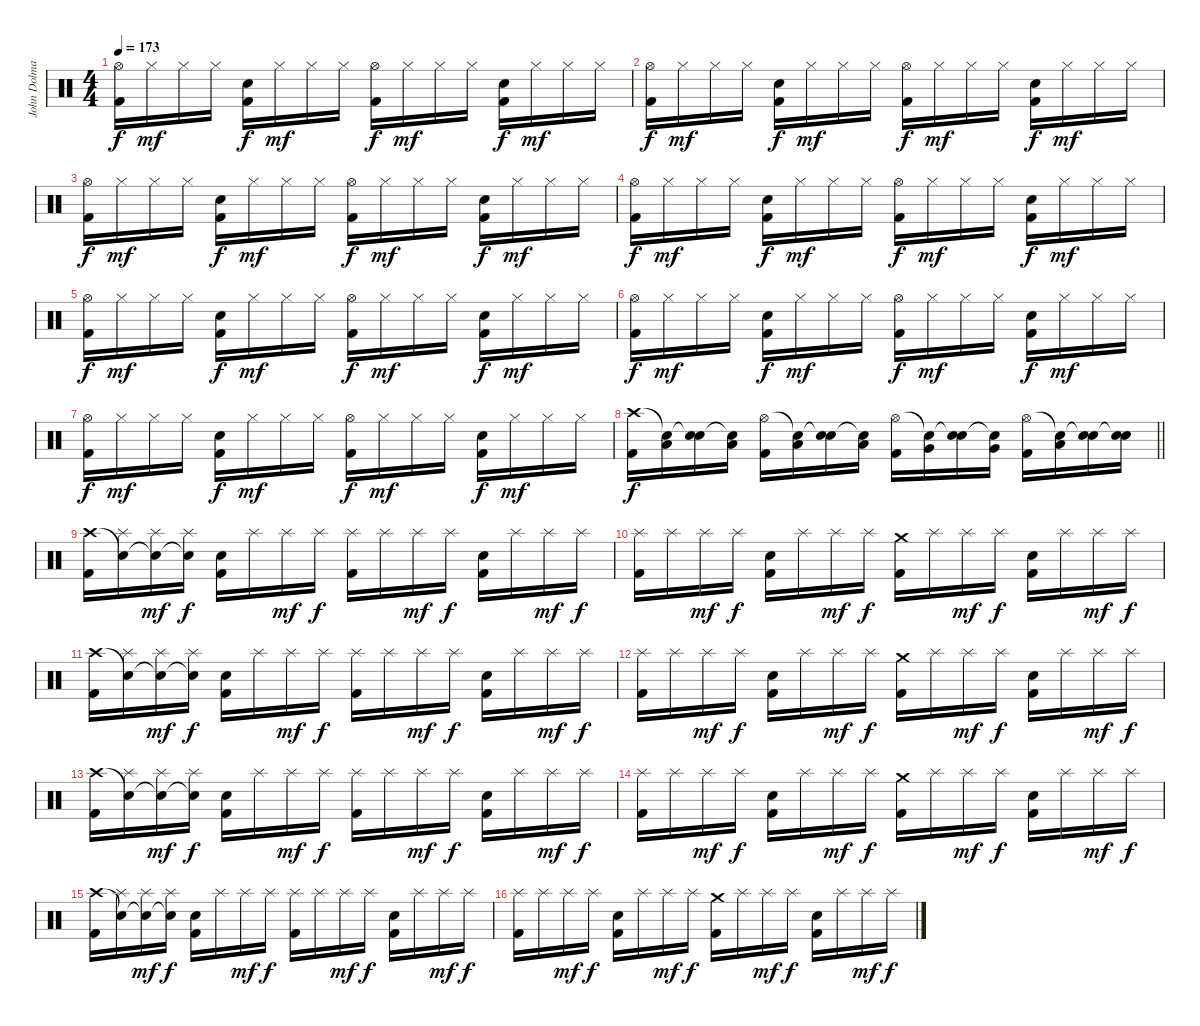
\track ("John Dolmayan" "John Dolma") {instrument percussion}
\staff {score}
\articulation defaults
\ts (4 4)
\tempo 173
\clef neutral
\ks c
("Hi-Hat (open)" "Kick (hit) 2").16{dy f} "Hi-Hat (closed)".16{dy mf} "Hi-Hat (closed)".16 "Hi-Hat (closed)".16 ("Electric Snare (hit)" "Kick (hit) 2").16{dy f} "Hi-Hat (closed)".16{dy mf} "Hi-Hat (closed)".16 "Hi-Hat (closed)".16 ("Hi-Hat (open)" "Kick (hit) 2").16{dy f} "Hi-Hat (closed)".16{dy mf} "Hi-Hat (closed)".16 "Hi-Hat (closed)".16 ("Electric Snare (hit)" "Kick (hit) 2").16{dy f} "Hi-Hat (closed)".16{dy mf} "Hi-Hat (closed)".16 "Hi-Hat (closed)".16 |
("Hi-Hat (open)" "Kick (hit) 2").16{dy f} "Hi-Hat (closed)".16{dy mf} "Hi-Hat (closed)".16 "Hi-Hat (closed)".16 ("Electric Snare (hit)" "Kick (hit) 2").16{dy f} "Hi-Hat (closed)".16{dy mf} "Hi-Hat (closed)".16 "Hi-Hat (closed)".16 ("Hi-Hat (open)" "Kick (hit) 2").16{dy f} "Hi-Hat (closed)".16{dy mf} "Hi-Hat (closed)".16 "Hi-Hat (closed)".16 ("Electric Snare (hit)" "Kick (hit) 2").16{dy f} "Hi-Hat (closed)".16{dy mf} "Hi-Hat (closed)".16 "Hi-Hat (closed)".16 |
("Hi-Hat (open)" "Kick (hit) 2").16{dy f} "Hi-Hat (closed)".16{dy mf} "Hi-Hat (closed)".16 "Hi-Hat (closed)".16 ("Electric Snare (hit)" "Kick (hit) 2").16{dy f} "Hi-Hat (closed)".16{dy mf} "Hi-Hat (closed)".16 "Hi-Hat (closed)".16 ("Hi-Hat (open)" "Kick (hit) 2").16{dy f} "Hi-Hat (closed)".16{dy mf} "Hi-Hat (closed)".16 "Hi-Hat (closed)".16 ("Electric Snare (hit)" "Kick (hit) 2").16{dy f} "Hi-Hat (closed)".16{dy mf} "Hi-Hat (closed)".16 "Hi-Hat (closed)".16 |
("Hi-Hat (open)" "Kick (hit) 2").16{dy f} "Hi-Hat (closed)".16{dy mf} "Hi-Hat (closed)".16 "Hi-Hat (closed)".16 ("Electric Snare (hit)" "Kick (hit) 2").16{dy f} "Hi-Hat (closed)".16{dy mf} "Hi-Hat (closed)".16 "Hi-Hat (closed)".16 ("Hi-Hat (open)" "Kick (hit) 2").16{dy f} "Hi-Hat (closed)".16{dy mf} "Hi-Hat (closed)".16 "Hi-Hat (closed)".16 ("Electric Snare (hit)" "Kick (hit) 2").16{dy f} "Hi-Hat (closed)".16{dy mf} "Hi-Hat (closed)".16 "Hi-Hat (closed)".16 |
("Hi-Hat (open)" "Kick (hit) 2").16{dy f} "Hi-Hat (closed)".16{dy mf} "Hi-Hat (closed)".16 "Hi-Hat (closed)".16 ("Electric Snare (hit)" "Kick (hit) 2").16{dy f} "Hi-Hat (closed)".16{dy mf} "Hi-Hat (closed)".16 "Hi-Hat (closed)".16 ("Hi-Hat (open)" "Kick (hit) 2").16{dy f} "Hi-Hat (closed)".16{dy mf} "Hi-Hat (closed)".16 "Hi-Hat (closed)".16 ("Electric Snare (hit)" "Kick (hit) 2").16{dy f} "Hi-Hat (closed)".16{dy mf} "Hi-Hat (closed)".16 "Hi-Hat (closed)".16 |
("Hi-Hat (open)" "Kick (hit) 2").16{dy f} "Hi-Hat (closed)".16{dy mf} "Hi-Hat (closed)".16 "Hi-Hat (closed)".16 ("Electric Snare (hit)" "Kick (hit) 2").16{dy f} "Hi-Hat (closed)".16{dy mf} "Hi-Hat (closed)".16 "Hi-Hat (closed)".16 ("Hi-Hat (open)" "Kick (hit) 2").16{dy f} "Hi-Hat (closed)".16{dy mf} "Hi-Hat (closed)".16 "Hi-Hat (closed)".16 ("Electric Snare (hit)" "Kick (hit) 2").16{dy f} "Hi-Hat (closed)".16{dy mf} "Hi-Hat (closed)".16 "Hi-Hat (closed)".16 |
("Hi-Hat (open)" "Kick (hit) 2").16{dy f} "Hi-Hat (closed)".16{dy mf} "Hi-Hat (closed)".16 "Hi-Hat (closed)".16 ("Electric Snare (hit)" "Kick (hit) 2").16{dy f} "Hi-Hat (closed)".16{dy mf} "Hi-Hat (closed)".16 "Hi-Hat (closed)".16 ("Hi-Hat (open)" "Kick (hit) 2").16{dy f} "Hi-Hat (closed)".16{dy mf} "Hi-Hat (closed)".16 "Hi-Hat (closed)".16 ("Electric Snare (hit)" "Kick (hit) 2").16{dy f} "Hi-Hat (closed)".16{dy mf} "Hi-Hat (closed)".16 "Hi-Hat (closed)".16 |
\barLineRight lightlight
("Crash high (hit)" "Kick (hit) 2").16{dy f} ("Snare (hit)"{t} "Low Tom (hit)").16 ("Snare (hit)"{t} "Electric Snare (hit)").16 ("Snare (hit)"{t} "Low Tom (hit)").16 ("Hi-Hat (open)" "Kick (hit) 2").16 ("Snare (hit)"{t} "Low Tom (hit)").16 ("Snare (hit)"{t} "Electric Snare (hit)").16 ("Snare (hit)"{t} "Low Tom (hit)").16 ("Hi-Hat (open)" "Kick (hit) 2").16 ("Snare (hit)"{t} "Very Low Tom (hit)").16 ("Snare (hit)"{t} "Electric Snare (hit)").16 ("Snare (hit)"{t} "Very Low Tom (hit)").16 ("Hi-Hat (open)" "Kick (hit) 2").16 ("Snare (hit)"{t} "Low Floor Tom (hit)").16 ("Snare (hit)"{t} "Electric Snare (hit)").16 ("Snare (hit)"{t} "Electric Snare (hit)").16 |
("Crash high (hit)" "Kick (hit) 2").16 ("Snare (hit)"{t} "Splash (hit)").16 ("Snare (hit)"{t} "Splash (hit)").16{dy mf} ("Snare (hit)"{t} "Splash (hit)").16{dy f} ("Electric Snare (hit)" "Kick (hit) 2").16 "Splash (hit)".16 "Splash (hit)".16{dy mf} "Splash (hit)".16{dy f} ("Splash (hit)" "Kick (hit) 2").16 "Splash (hit)".16 "Splash (hit)".16{dy mf} "Splash (hit)".16{dy f} ("Electric Snare (hit)" "Kick (hit) 2").16 "Splash (hit)".16 "Splash (hit)".16{dy mf} "Splash (hit)".16{dy f} |
("Splash (hit)" "Kick (hit) 2").16 "Splash (hit)".16 "Splash (hit)".16{dy mf} "Splash (hit)".16{dy f} ("Electric Snare (hit)" "Kick (hit) 2").16 "Splash (hit)".16 "Splash (hit)".16{dy mf} "Splash (hit)".16{dy f} ("Crash medium (hit)" "Kick (hit) 2").16 "Splash (hit)".16 "Splash (hit)".16{dy mf} "Splash (hit)".16{dy f} ("Electric Snare (hit)" "Kick (hit) 2").16 "Splash (hit)".16 "Splash (hit)".16{dy mf} "Splash (hit)".16{dy f} |
("Crash high (hit)" "Kick (hit) 2").16 ("Snare (hit)"{t} "Splash (hit)").16 ("Snare (hit)"{t} "Splash (hit)").16{dy mf} ("Snare (hit)"{t} "Splash (hit)").16{dy f} ("Electric Snare (hit)" "Kick (hit) 2").16 "Splash (hit)".16 "Splash (hit)".16{dy mf} "Splash (hit)".16{dy f} ("Splash (hit)" "Kick (hit) 2").16 "Splash (hit)".16 "Splash (hit)".16{dy mf} "Splash (hit)".16{dy f} ("Electric Snare (hit)" "Kick (hit) 2").16 "Splash (hit)".16 "Splash (hit)".16{dy mf} "Splash (hit)".16{dy f} |
("Splash (hit)" "Kick (hit) 2").16 "Splash (hit)".16 "Splash (hit)".16{dy mf} "Splash (hit)".16{dy f} ("Electric Snare (hit)" "Kick (hit) 2").16 "Splash (hit)".16 "Splash (hit)".16{dy mf} "Splash (hit)".16{dy f} ("Crash medium (hit)" "Kick (hit) 2").16 "Splash (hit)".16 "Splash (hit)".16{dy mf} "Splash (hit)".16{dy f} ("Electric Snare (hit)" "Kick (hit) 2").16 "Splash (hit)".16 "Splash (hit)".16{dy mf} "Splash (hit)".16{dy f} |
("Crash high (hit)" "Kick (hit) 2").16 ("Snare (hit)"{t} "Splash (hit)").16 ("Snare (hit)"{t} "Splash (hit)").16{dy mf} ("Snare (hit)"{t} "Splash (hit)").16{dy f} ("Electric Snare (hit)" "Kick (hit) 2").16 "Splash (hit)".16 "Splash (hit)".16{dy mf} "Splash (hit)".16{dy f} ("Splash (hit)" "Kick (hit) 2").16 "Splash (hit)".16 "Splash (hit)".16{dy mf} "Splash (hit)".16{dy f} ("Electric Snare (hit)" "Kick (hit) 2").16 "Splash (hit)".16 "Splash (hit)".16{dy mf} "Splash (hit)".16{dy f} |
("Splash (hit)" "Kick (hit) 2").16 "Splash (hit)".16 "Splash (hit)".16{dy mf} "Splash (hit)".16{dy f} ("Electric Snare (hit)" "Kick (hit) 2").16 "Splash (hit)".16 "Splash (hit)".16{dy mf} "Splash (hit)".16{dy f} ("Crash medium (hit)" "Kick (hit) 2").16 "Splash (hit)".16 "Splash (hit)".16{dy mf} "Splash (hit)".16{dy f} ("Electric Snare (hit)" "Kick (hit) 2").16 "Splash (hit)".16 "Splash (hit)".16{dy mf} "Splash (hit)".16{dy f} |
("Crash high (hit)" "Kick (hit) 2").16 ("Snare (hit)"{t} "Splash (hit)").16 ("Snare (hit)"{t} "Splash (hit)").16{dy mf} ("Snare (hit)"{t} "Splash (hit)").16{dy f} ("Electric Snare (hit)" "Kick (hit) 2").16 "Splash (hit)".16 "Splash (hit)".16{dy mf} "Splash (hit)".16{dy f} ("Splash (hit)" "Kick (hit) 2").16 "Splash (hit)".16 "Splash (hit)".16{dy mf} "Splash (hit)".16{dy f} ("Electric Snare (hit)" "Kick (hit) 2").16 "Splash (hit)".16 "Splash (hit)".16{dy mf} "Splash (hit)".16{dy f} |
("Splash (hit)" "Kick (hit) 2").16 "Splash (hit)".16 "Splash (hit)".16{dy mf} "Splash (hit)".16{dy f} ("Electric Snare (hit)" "Kick (hit) 2").16 "Splash (hit)".16 "Splash (hit)".16{dy mf} "Splash (hit)".16{dy f} ("Crash medium (hit)" "Kick (hit) 2").16 "Splash (hit)".16 "Splash (hit)".16{dy mf} "Splash (hit)".16{dy f} ("Electric Snare (hit)" "Kick (hit) 2").16 "Splash (hit)".16 "Splash (hit)".16{dy mf} "Splash (hit)".16{dy f}
